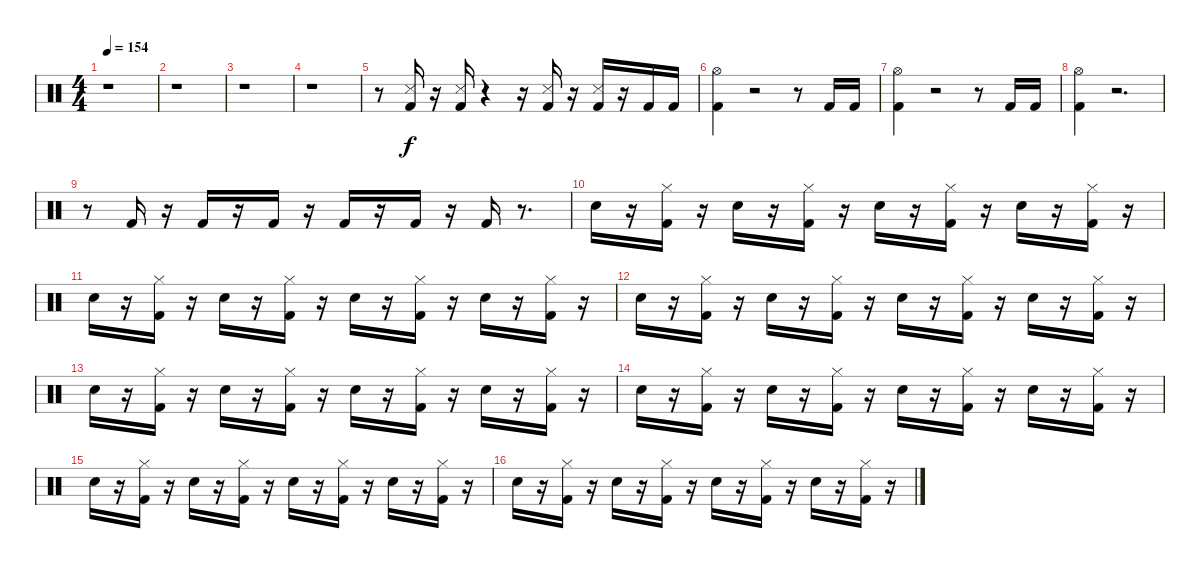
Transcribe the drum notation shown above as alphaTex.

\track "" {instrument percussion}
\staff {score}
\articulation defaults
\ts (4 4)
\tempo 154
\clef neutral
\ks c
r.1{dy f} |
r.1 |
r.1 |
r.1 |
r.8 ("Kick (hit) 2" "Metronome (hit)").16 r.16 ("Metronome (hit)" "Kick (hit) 2").16 r.4 r.16 ("Kick (hit) 2" "Metronome (hit)").16 r.16 ("Kick (hit) 2" "Metronome (hit)").16 r.16 "Kick (hit) 2".16 "Kick (hit) 2".16 |
("Hi-Hat (open)" "Kick (hit) 2").4 r.2 r.8 "Kick (hit) 2".16 "Kick (hit) 2".16 |
("Hi-Hat (open)" "Kick (hit) 2").4 r.2 r.8 "Kick (hit) 2".16 "Kick (hit) 2".16 |
("Hi-Hat (open)" "Kick (hit) 2").4 r.2{d} |
r.8 "Kick (hit) 2".16 r.16 "Kick (hit) 2".16 r.16 "Kick (hit) 2".16 r.16 "Kick (hit) 2".16 r.16 "Kick (hit) 2".16 r.16 "Kick (hit) 2".16 r.8{d} |
"Snare (hit) 2".16 r.16 ("Hi-Hat (closed)" "Kick (hit) 2").16 r.16 "Snare (hit) 2".16 r.16 ("Hi-Hat (closed)" "Kick (hit) 2").16 r.16 "Snare (hit) 2".16 r.16 ("Kick (hit) 2" "Hi-Hat (closed)").16 r.16 "Snare (hit) 2".16 r.16 ("Hi-Hat (closed)" "Kick (hit) 2").16 r.16 |
"Snare (hit) 2".16 r.16 ("Hi-Hat (closed)" "Kick (hit) 2").16 r.16 "Snare (hit) 2".16 r.16 ("Hi-Hat (closed)" "Kick (hit) 2").16 r.16 "Snare (hit) 2".16 r.16 ("Hi-Hat (closed)" "Kick (hit) 2").16 r.16 "Snare (hit) 2".16 r.16 ("Kick (hit) 2" "Hi-Hat (closed)").16 r.16 |
"Snare (hit) 2".16 r.16 ("Hi-Hat (closed)" "Kick (hit) 2").16 r.16 "Snare (hit) 2".16 r.16 ("Kick (hit) 2" "Hi-Hat (closed)").16 r.16 "Snare (hit) 2".16 r.16 ("Kick (hit) 2" "Hi-Hat (closed)").16 r.16 "Snare (hit) 2".16 r.16 ("Hi-Hat (closed)" "Kick (hit) 2").16 r.16 |
"Snare (hit) 2".16 r.16 ("Kick (hit) 2" "Hi-Hat (closed)").16 r.16 "Snare (hit) 2".16 r.16 ("Kick (hit) 2" "Hi-Hat (closed)").16 r.16 "Snare (hit) 2".16 r.16 ("Hi-Hat (closed)" "Kick (hit) 2").16 r.16 "Snare (hit) 2".16 r.16 ("Hi-Hat (closed)" "Kick (hit) 2").16 r.16 |
"Snare (hit) 2".16 r.16 ("Hi-Hat (closed)" "Kick (hit) 2").16 r.16 "Snare (hit) 2".16 r.16 ("Kick (hit) 2" "Hi-Hat (closed)").16 r.16 "Snare (hit) 2".16 r.16 ("Hi-Hat (closed)" "Kick (hit) 2").16 r.16 "Snare (hit) 2".16 r.16 ("Kick (hit) 2" "Hi-Hat (closed)").16 r.16 |
"Snare (hit) 2".16 r.16 ("Hi-Hat (closed)" "Kick (hit) 2").16 r.16 "Snare (hit) 2".16 r.16 ("Kick (hit) 2" "Hi-Hat (closed)").16 r.16 "Snare (hit) 2".16 r.16 ("Kick (hit) 2" "Hi-Hat (closed)").16 r.16 "Snare (hit) 2".16 r.16 ("Kick (hit) 2" "Hi-Hat (closed)").16 r.16 |
"Snare (hit) 2".16 r.16 ("Kick (hit) 2" "Hi-Hat (closed)").16 r.16 "Snare (hit) 2".16 r.16 ("Hi-Hat (closed)" "Kick (hit) 2").16 r.16 "Snare (hit) 2".16 r.16 ("Hi-Hat (closed)" "Kick (hit) 2").16 r.16 "Snare (hit) 2".16 r.16 ("Hi-Hat (closed)" "Kick (hit) 2").16 r.16
